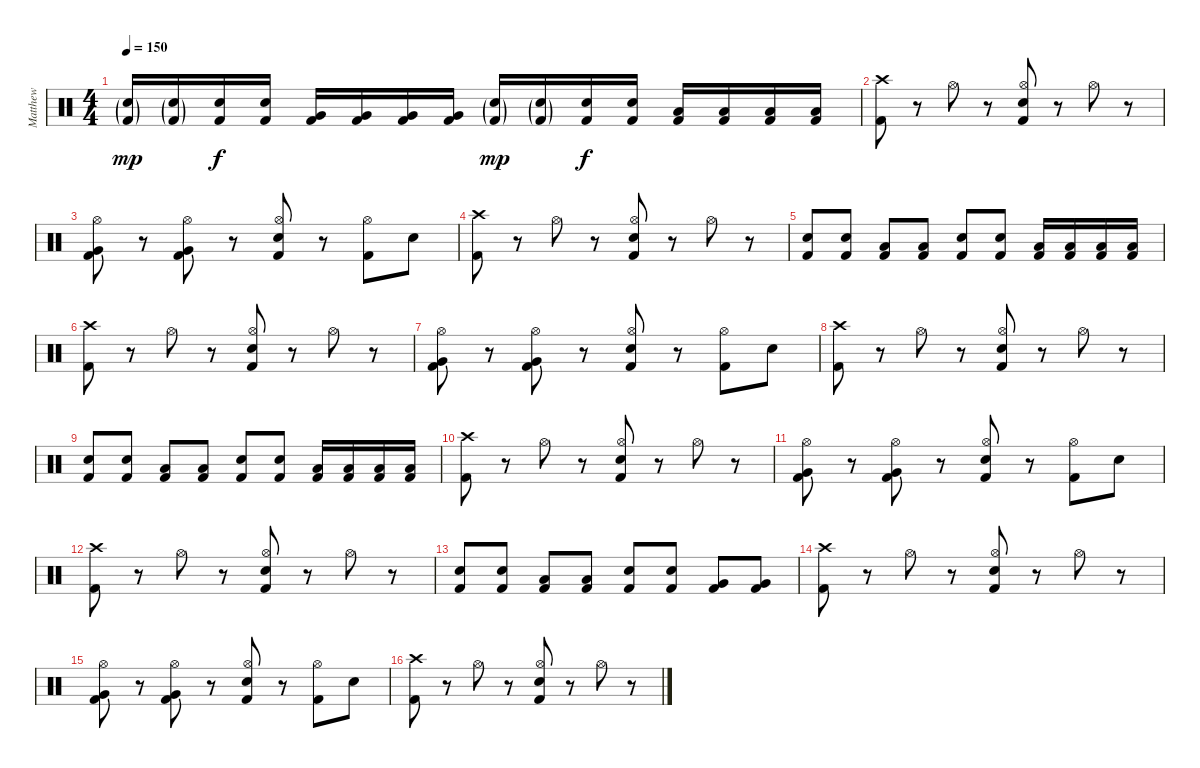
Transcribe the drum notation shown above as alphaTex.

\track ("Matthew" "Matthew") {instrument percussion}
\staff {score}
\articulation defaults
\ts (4 4)
\tempo 150
\clef neutral
\ks c
("Electric Snare (hit)"{g} "Kick (hit) 2"{g}).16{dy mp} ("Electric Snare (hit)"{g} "Kick (hit) 2"{g}).16 ("Electric Snare (hit)" "Kick (hit) 2").16{dy f} ("Electric Snare (hit)" "Kick (hit) 2").16 ("Very Low Tom (hit)" "Kick (hit) 2").16 ("Very Low Tom (hit)" "Kick (hit) 2").16 ("Very Low Tom (hit)" "Kick (hit) 2").16 ("Very Low Tom (hit)" "Kick (hit) 2").16 ("Electric Snare (hit)"{g} "Kick (hit) 2"{g}).16{dy mp} ("Electric Snare (hit)"{g} "Kick (hit) 2"{g}).16 ("Electric Snare (hit)" "Kick (hit) 2").16{dy f} ("Electric Snare (hit)" "Kick (hit) 2").16 ("Low Floor Tom (hit)" "Kick (hit) 2").16 ("Low Floor Tom (hit)" "Kick (hit) 2").16 ("Low Floor Tom (hit)" "Kick (hit) 2").16 ("Low Floor Tom (hit)" "Kick (hit) 2").16 |
("Crash high (hit)" "Kick (hit) 2").8 r.8 "Hi-Hat (open)".8 r.8 ("Hi-Hat (open)" "Snare (hit) 2" "Kick (hit) 2").8 r.8 "Hi-Hat (open)".8 r.8 |
("Hi-Hat (open)" "Very Low Tom (hit)" "Kick (hit) 2").8 r.8 ("Hi-Hat (open)" "Very Low Tom (hit)" "Kick (hit) 2").8 r.8 ("Hi-Hat (open)" "Snare (hit) 2" "Kick (hit) 2").8 r.8 ("Hi-Hat (open)" "Kick (hit) 2").8 "Snare (hit) 2".8 |
("Crash high (hit)" "Kick (hit) 2").8 r.8 "Hi-Hat (open)".8 r.8 ("Hi-Hat (open)" "Snare (hit) 2" "Kick (hit) 2").8 r.8 "Hi-Hat (open)".8 r.8 |
("Electric Snare (hit)" "Kick (hit) 2").8 ("Electric Snare (hit)" "Kick (hit) 2").8 ("Low Tom (hit)" "Kick (hit) 2").8 ("Low Tom (hit)" "Kick (hit) 2").8 ("Electric Snare (hit)" "Kick (hit) 2").8 ("Electric Snare (hit)" "Kick (hit) 2").8 ("Low Tom (hit)" "Kick (hit) 2").16 ("Low Tom (hit)" "Kick (hit) 2").16 ("Low Tom (hit)" "Kick (hit) 2").16 ("Low Tom (hit)" "Kick (hit) 2").16 |
("Crash high (hit)" "Kick (hit) 2").8 r.8 "Hi-Hat (open)".8 r.8 ("Hi-Hat (open)" "Snare (hit) 2" "Kick (hit) 2").8 r.8 "Hi-Hat (open)".8 r.8 |
("Hi-Hat (open)" "Very Low Tom (hit)" "Kick (hit) 2").8 r.8 ("Hi-Hat (open)" "Very Low Tom (hit)" "Kick (hit) 2").8 r.8 ("Hi-Hat (open)" "Snare (hit) 2" "Kick (hit) 2").8 r.8 ("Hi-Hat (open)" "Kick (hit) 2").8 "Snare (hit) 2".8 |
("Crash high (hit)" "Kick (hit) 2").8 r.8 "Hi-Hat (open)".8 r.8 ("Hi-Hat (open)" "Snare (hit) 2" "Kick (hit) 2").8 r.8 "Hi-Hat (open)".8 r.8 |
("Electric Snare (hit)" "Kick (hit) 2").8 ("Electric Snare (hit)" "Kick (hit) 2").8 ("Low Tom (hit)" "Kick (hit) 2").8 ("Low Tom (hit)" "Kick (hit) 2").8 ("Electric Snare (hit)" "Kick (hit) 2").8 ("Electric Snare (hit)" "Kick (hit) 2").8 ("Low Tom (hit)" "Kick (hit) 2").16 ("Low Tom (hit)" "Kick (hit) 2").16 ("Low Tom (hit)" "Kick (hit) 2").16 ("Low Tom (hit)" "Kick (hit) 2").16 |
("Crash high (hit)" "Kick (hit) 2").8 r.8 "Hi-Hat (open)".8 r.8 ("Hi-Hat (open)" "Snare (hit) 2" "Kick (hit) 2").8 r.8 "Hi-Hat (open)".8 r.8 |
("Hi-Hat (open)" "Very Low Tom (hit)" "Kick (hit) 2").8 r.8 ("Hi-Hat (open)" "Very Low Tom (hit)" "Kick (hit) 2").8 r.8 ("Hi-Hat (open)" "Snare (hit) 2" "Kick (hit) 2").8 r.8 ("Hi-Hat (open)" "Kick (hit) 2").8 "Snare (hit) 2".8 |
("Crash high (hit)" "Kick (hit) 2").8 r.8 "Hi-Hat (open)".8 r.8 ("Hi-Hat (open)" "Snare (hit) 2" "Kick (hit) 2").8 r.8 "Hi-Hat (open)".8 r.8 |
("Electric Snare (hit)" "Kick (hit) 2").8 ("Electric Snare (hit)" "Kick (hit) 2").8 ("Low Tom (hit)" "Kick (hit) 2").8 ("Low Tom (hit)" "Kick (hit) 2").8 ("Electric Snare (hit)" "Kick (hit) 2").8 ("Electric Snare (hit)" "Kick (hit) 2").8 ("Very Low Tom (hit)" "Kick (hit) 2").8 ("Very Low Tom (hit)" "Kick (hit) 2").8 |
("Crash high (hit)" "Kick (hit) 2").8 r.8 "Hi-Hat (open)".8 r.8 ("Hi-Hat (open)" "Snare (hit) 2" "Kick (hit) 2").8 r.8 "Hi-Hat (open)".8 r.8 |
("Hi-Hat (open)" "Very Low Tom (hit)" "Kick (hit) 2").8 r.8 ("Hi-Hat (open)" "Very Low Tom (hit)" "Kick (hit) 2").8 r.8 ("Hi-Hat (open)" "Snare (hit) 2" "Kick (hit) 2").8 r.8 ("Hi-Hat (open)" "Kick (hit) 2").8 "Snare (hit) 2".8 |
("Crash high (hit)" "Kick (hit) 2").8 r.8 "Hi-Hat (open)".8 r.8 ("Hi-Hat (open)" "Snare (hit) 2" "Kick (hit) 2").8 r.8 "Hi-Hat (open)".8 r.8
